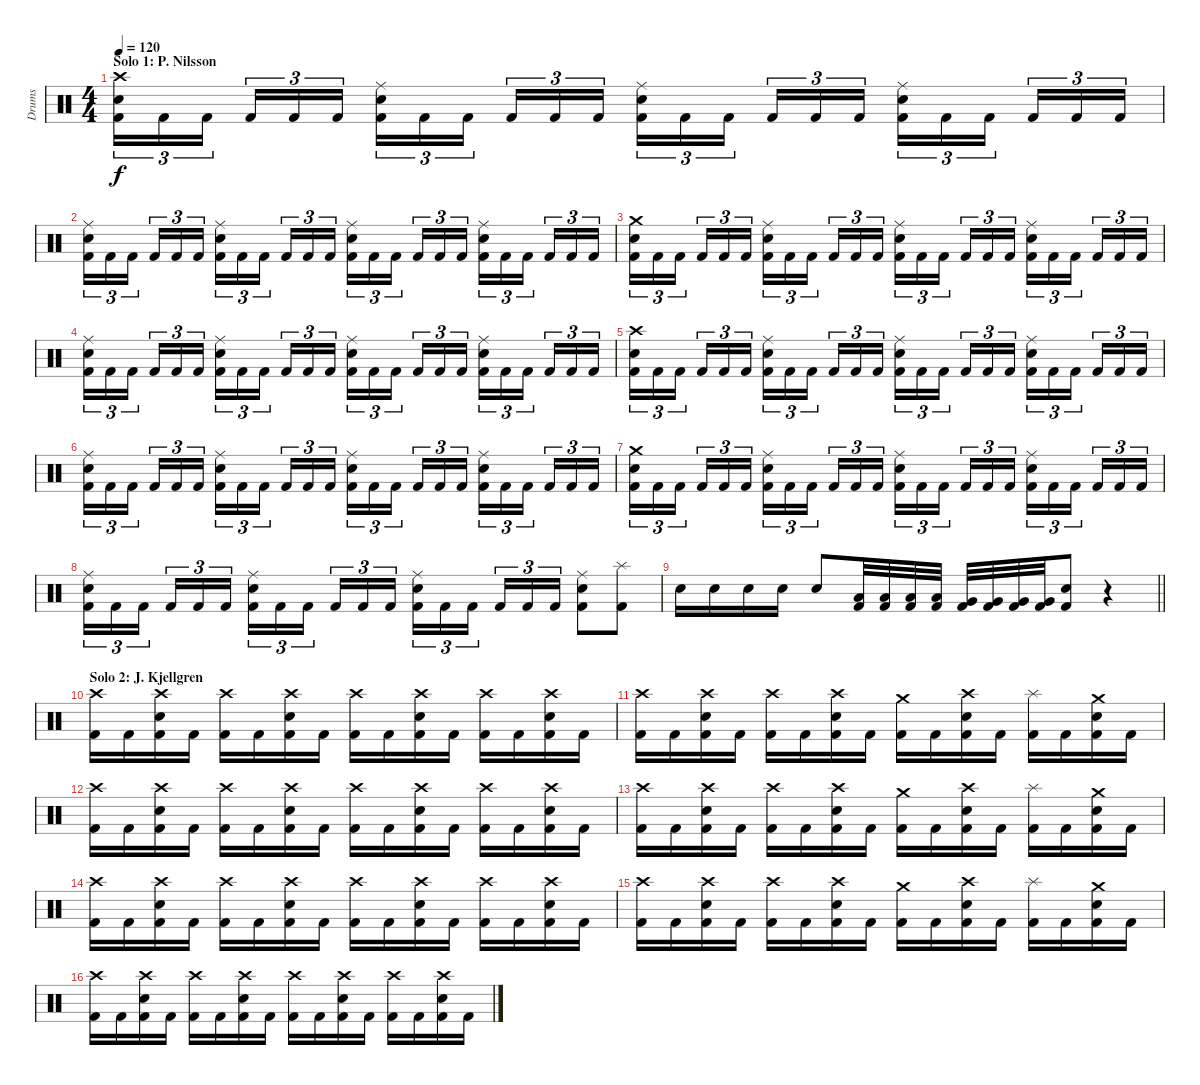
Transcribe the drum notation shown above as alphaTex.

\track ("Drums" "Drums") {instrument percussion}
\staff {score}
\articulation defaults
\ts (4 4)
\section ("" "Solo 1: P. Nilsson")
\tempo 120
\clef neutral
\ks c
("Crash high (hit)" "Electric Snare (hit)" "Kick (hit) 2").16{tu (3 2) dy f} "Kick (hit) 2".16{tu (3 2)} "Kick (hit) 2".16{tu (3 2)} "Kick (hit) 2".16{tu (3 2)} "Kick (hit) 2".16{tu (3 2)} "Kick (hit) 2".16{tu (3 2)} ("Ride (middle)" "Electric Snare (hit)" "Kick (hit) 2").16{tu (3 2)} "Kick (hit) 2".16{tu (3 2)} "Kick (hit) 2".16{tu (3 2)} "Kick (hit) 2".16{tu (3 2)} "Kick (hit) 2".16{tu (3 2)} "Kick (hit) 2".16{tu (3 2)} ("Ride (middle)" "Electric Snare (hit)" "Kick (hit) 2").16{tu (3 2)} "Kick (hit) 2".16{tu (3 2)} "Kick (hit) 2".16{tu (3 2)} "Kick (hit) 2".16{tu (3 2)} "Kick (hit) 2".16{tu (3 2)} "Kick (hit) 2".16{tu (3 2)} ("Ride (middle)" "Electric Snare (hit)" "Kick (hit) 2").16{tu (3 2)} "Kick (hit) 2".16{tu (3 2)} "Kick (hit) 2".16{tu (3 2)} "Kick (hit) 2".16{tu (3 2)} "Kick (hit) 2".16{tu (3 2)} "Kick (hit) 2".16{tu (3 2)} |
("Ride (middle)" "Electric Snare (hit)" "Kick (hit) 2").16{tu (3 2)} "Kick (hit) 2".16{tu (3 2)} "Kick (hit) 2".16{tu (3 2)} "Kick (hit) 2".16{tu (3 2)} "Kick (hit) 2".16{tu (3 2)} "Kick (hit) 2".16{tu (3 2)} ("Ride (middle)" "Electric Snare (hit)" "Kick (hit) 2").16{tu (3 2)} "Kick (hit) 2".16{tu (3 2)} "Kick (hit) 2".16{tu (3 2)} "Kick (hit) 2".16{tu (3 2)} "Kick (hit) 2".16{tu (3 2)} "Kick (hit) 2".16{tu (3 2)} ("Ride (middle)" "Electric Snare (hit)" "Kick (hit) 2").16{tu (3 2)} "Kick (hit) 2".16{tu (3 2)} "Kick (hit) 2".16{tu (3 2)} "Kick (hit) 2".16{tu (3 2)} "Kick (hit) 2".16{tu (3 2)} "Kick (hit) 2".16{tu (3 2)} ("Ride (middle)" "Electric Snare (hit)" "Kick (hit) 2").16{tu (3 2)} "Kick (hit) 2".16{tu (3 2)} "Kick (hit) 2".16{tu (3 2)} "Kick (hit) 2".16{tu (3 2)} "Kick (hit) 2".16{tu (3 2)} "Kick (hit) 2".16{tu (3 2)} |
("Crash medium (hit)" "Electric Snare (hit)" "Kick (hit) 2").16{tu (3 2)} "Kick (hit) 2".16{tu (3 2)} "Kick (hit) 2".16{tu (3 2)} "Kick (hit) 2".16{tu (3 2)} "Kick (hit) 2".16{tu (3 2)} "Kick (hit) 2".16{tu (3 2)} ("Ride (middle)" "Electric Snare (hit)" "Kick (hit) 2").16{tu (3 2)} "Kick (hit) 2".16{tu (3 2)} "Kick (hit) 2".16{tu (3 2)} "Kick (hit) 2".16{tu (3 2)} "Kick (hit) 2".16{tu (3 2)} "Kick (hit) 2".16{tu (3 2)} ("Ride (middle)" "Electric Snare (hit)" "Kick (hit) 2").16{tu (3 2)} "Kick (hit) 2".16{tu (3 2)} "Kick (hit) 2".16{tu (3 2)} "Kick (hit) 2".16{tu (3 2)} "Kick (hit) 2".16{tu (3 2)} "Kick (hit) 2".16{tu (3 2)} ("Ride (middle)" "Electric Snare (hit)" "Kick (hit) 2").16{tu (3 2)} "Kick (hit) 2".16{tu (3 2)} "Kick (hit) 2".16{tu (3 2)} "Kick (hit) 2".16{tu (3 2)} "Kick (hit) 2".16{tu (3 2)} "Kick (hit) 2".16{tu (3 2)} |
("Ride (middle)" "Electric Snare (hit)" "Kick (hit) 2").16{tu (3 2)} "Kick (hit) 2".16{tu (3 2)} "Kick (hit) 2".16{tu (3 2)} "Kick (hit) 2".16{tu (3 2)} "Kick (hit) 2".16{tu (3 2)} "Kick (hit) 2".16{tu (3 2)} ("Ride (middle)" "Electric Snare (hit)" "Kick (hit) 2").16{tu (3 2)} "Kick (hit) 2".16{tu (3 2)} "Kick (hit) 2".16{tu (3 2)} "Kick (hit) 2".16{tu (3 2)} "Kick (hit) 2".16{tu (3 2)} "Kick (hit) 2".16{tu (3 2)} ("Ride (middle)" "Electric Snare (hit)" "Kick (hit) 2").16{tu (3 2)} "Kick (hit) 2".16{tu (3 2)} "Kick (hit) 2".16{tu (3 2)} "Kick (hit) 2".16{tu (3 2)} "Kick (hit) 2".16{tu (3 2)} "Kick (hit) 2".16{tu (3 2)} ("Ride (middle)" "Electric Snare (hit)" "Kick (hit) 2").16{tu (3 2)} "Kick (hit) 2".16{tu (3 2)} "Kick (hit) 2".16{tu (3 2)} "Kick (hit) 2".16{tu (3 2)} "Kick (hit) 2".16{tu (3 2)} "Kick (hit) 2".16{tu (3 2)} |
("Crash high (hit)" "Electric Snare (hit)" "Kick (hit) 2").16{tu (3 2)} "Kick (hit) 2".16{tu (3 2)} "Kick (hit) 2".16{tu (3 2)} "Kick (hit) 2".16{tu (3 2)} "Kick (hit) 2".16{tu (3 2)} "Kick (hit) 2".16{tu (3 2)} ("Ride (middle)" "Electric Snare (hit)" "Kick (hit) 2").16{tu (3 2)} "Kick (hit) 2".16{tu (3 2)} "Kick (hit) 2".16{tu (3 2)} "Kick (hit) 2".16{tu (3 2)} "Kick (hit) 2".16{tu (3 2)} "Kick (hit) 2".16{tu (3 2)} ("Ride (middle)" "Electric Snare (hit)" "Kick (hit) 2").16{tu (3 2)} "Kick (hit) 2".16{tu (3 2)} "Kick (hit) 2".16{tu (3 2)} "Kick (hit) 2".16{tu (3 2)} "Kick (hit) 2".16{tu (3 2)} "Kick (hit) 2".16{tu (3 2)} ("Ride (middle)" "Electric Snare (hit)" "Kick (hit) 2").16{tu (3 2)} "Kick (hit) 2".16{tu (3 2)} "Kick (hit) 2".16{tu (3 2)} "Kick (hit) 2".16{tu (3 2)} "Kick (hit) 2".16{tu (3 2)} "Kick (hit) 2".16{tu (3 2)} |
("Ride (middle)" "Electric Snare (hit)" "Kick (hit) 2").16{tu (3 2)} "Kick (hit) 2".16{tu (3 2)} "Kick (hit) 2".16{tu (3 2)} "Kick (hit) 2".16{tu (3 2)} "Kick (hit) 2".16{tu (3 2)} "Kick (hit) 2".16{tu (3 2)} ("Ride (middle)" "Electric Snare (hit)" "Kick (hit) 2").16{tu (3 2)} "Kick (hit) 2".16{tu (3 2)} "Kick (hit) 2".16{tu (3 2)} "Kick (hit) 2".16{tu (3 2)} "Kick (hit) 2".16{tu (3 2)} "Kick (hit) 2".16{tu (3 2)} ("Ride (middle)" "Electric Snare (hit)" "Kick (hit) 2").16{tu (3 2)} "Kick (hit) 2".16{tu (3 2)} "Kick (hit) 2".16{tu (3 2)} "Kick (hit) 2".16{tu (3 2)} "Kick (hit) 2".16{tu (3 2)} "Kick (hit) 2".16{tu (3 2)} ("Ride (middle)" "Electric Snare (hit)" "Kick (hit) 2").16{tu (3 2)} "Kick (hit) 2".16{tu (3 2)} "Kick (hit) 2".16{tu (3 2)} "Kick (hit) 2".16{tu (3 2)} "Kick (hit) 2".16{tu (3 2)} "Kick (hit) 2".16{tu (3 2)} |
("Crash medium (hit)" "Electric Snare (hit)" "Kick (hit) 2").16{tu (3 2)} "Kick (hit) 2".16{tu (3 2)} "Kick (hit) 2".16{tu (3 2)} "Kick (hit) 2".16{tu (3 2)} "Kick (hit) 2".16{tu (3 2)} "Kick (hit) 2".16{tu (3 2)} ("Ride (middle)" "Electric Snare (hit)" "Kick (hit) 2").16{tu (3 2)} "Kick (hit) 2".16{tu (3 2)} "Kick (hit) 2".16{tu (3 2)} "Kick (hit) 2".16{tu (3 2)} "Kick (hit) 2".16{tu (3 2)} "Kick (hit) 2".16{tu (3 2)} ("Ride (middle)" "Electric Snare (hit)" "Kick (hit) 2").16{tu (3 2)} "Kick (hit) 2".16{tu (3 2)} "Kick (hit) 2".16{tu (3 2)} "Kick (hit) 2".16{tu (3 2)} "Kick (hit) 2".16{tu (3 2)} "Kick (hit) 2".16{tu (3 2)} ("Ride (middle)" "Electric Snare (hit)" "Kick (hit) 2").16{tu (3 2)} "Kick (hit) 2".16{tu (3 2)} "Kick (hit) 2".16{tu (3 2)} "Kick (hit) 2".16{tu (3 2)} "Kick (hit) 2".16{tu (3 2)} "Kick (hit) 2".16{tu (3 2)} |
("Ride (middle)" "Electric Snare (hit)" "Kick (hit) 2").16{tu (3 2)} "Kick (hit) 2".16{tu (3 2)} "Kick (hit) 2".16{tu (3 2)} "Kick (hit) 2".16{tu (3 2)} "Kick (hit) 2".16{tu (3 2)} "Kick (hit) 2".16{tu (3 2)} ("Ride (middle)" "Electric Snare (hit)" "Kick (hit) 2").16{tu (3 2)} "Kick (hit) 2".16{tu (3 2)} "Kick (hit) 2".16{tu (3 2)} "Kick (hit) 2".16{tu (3 2)} "Kick (hit) 2".16{tu (3 2)} "Kick (hit) 2".16{tu (3 2)} ("Ride (middle)" "Electric Snare (hit)" "Kick (hit) 2").16{tu (3 2)} "Kick (hit) 2".16{tu (3 2)} "Kick (hit) 2".16{tu (3 2)} "Kick (hit) 2".16{tu (3 2)} "Kick (hit) 2".16{tu (3 2)} "Kick (hit) 2".16{tu (3 2)} ("Ride (middle)" "Electric Snare (hit)" "Kick (hit) 2").8 ("Splash (hit)" "Kick (hit) 2").8 |
\barLineRight lightlight "Electric Snare (hit)".16 "Electric Snare (hit)".16 "Electric Snare (hit)".16 "Electric Snare (hit)".16 "Electric Snare (hit)".8
("Low Tom (hit)" "Kick (hit) 2").32 ("Low Tom (hit)" "Kick (hit) 2").32 ("Low Tom (hit)" "Kick (hit) 2").32 ("Low Tom (hit)" "Kick (hit) 2").32 ("Very Low Tom (hit)" "Kick (hit) 2").32 ("Very Low Tom (hit)" "Kick (hit) 2").32 ("Very Low Tom (hit)" "Kick (hit) 2").32 ("Very Low Tom (hit)" "Kick (hit) 2").32 ("Electric Snare (hit)" "Kick (hit) 2").8 r.4 |
\section ("" "Solo 2: J. Kjellgren")
("Crash high (hit)" "Kick (hit) 2").16 "Kick (hit) 2".16 ("Crash high (hit)" "Electric Snare (hit)" "Kick (hit) 2").16 "Kick (hit) 2".16 ("Crash high (hit)" "Kick (hit) 2").16 "Kick (hit) 2".16 ("Crash high (hit)" "Electric Snare (hit)" "Kick (hit) 2").16 "Kick (hit) 2".16 ("Crash high (hit)" "Kick (hit) 2").16 "Kick (hit) 2".16 ("Crash high (hit)" "Electric Snare (hit)" "Kick (hit) 2").16 "Kick (hit) 2".16 ("Crash high (hit)" "Kick (hit) 2").16 "Kick (hit) 2".16 ("Crash high (hit)" "Electric Snare (hit)" "Kick (hit) 2").16 "Kick (hit) 2".16 |
("Crash high (hit)" "Kick (hit) 2").16 "Kick (hit) 2".16 ("Crash high (hit)" "Electric Snare (hit)" "Kick (hit) 2").16 "Kick (hit) 2".16 ("Crash high (hit)" "Kick (hit) 2").16 "Kick (hit) 2".16 ("Crash high (hit)" "Electric Snare (hit)" "Kick (hit) 2").16 "Kick (hit) 2".16 ("Crash medium (hit)" "Kick (hit) 2").16 "Kick (hit) 2".16 ("Crash high (hit)" "Electric Snare (hit)" "Kick (hit) 2").16 "Kick (hit) 2".16 ("Splash (hit)" "Kick (hit) 2").16 "Kick (hit) 2".16 ("Crash medium (hit)" "Electric Snare (hit)" "Kick (hit) 2").16 "Kick (hit) 2".16 |
("Crash high (hit)" "Kick (hit) 2").16 "Kick (hit) 2".16 ("Crash high (hit)" "Electric Snare (hit)" "Kick (hit) 2").16 "Kick (hit) 2".16 ("Crash high (hit)" "Kick (hit) 2").16 "Kick (hit) 2".16 ("Crash high (hit)" "Electric Snare (hit)" "Kick (hit) 2").16 "Kick (hit) 2".16 ("Crash high (hit)" "Kick (hit) 2").16 "Kick (hit) 2".16 ("Crash high (hit)" "Electric Snare (hit)" "Kick (hit) 2").16 "Kick (hit) 2".16 ("Crash high (hit)" "Kick (hit) 2").16 "Kick (hit) 2".16 ("Crash high (hit)" "Electric Snare (hit)" "Kick (hit) 2").16 "Kick (hit) 2".16 |
("Crash high (hit)" "Kick (hit) 2").16 "Kick (hit) 2".16 ("Crash high (hit)" "Electric Snare (hit)" "Kick (hit) 2").16 "Kick (hit) 2".16 ("Crash high (hit)" "Kick (hit) 2").16 "Kick (hit) 2".16 ("Crash high (hit)" "Electric Snare (hit)" "Kick (hit) 2").16 "Kick (hit) 2".16 ("Crash medium (hit)" "Kick (hit) 2").16 "Kick (hit) 2".16 ("Crash high (hit)" "Electric Snare (hit)" "Kick (hit) 2").16 "Kick (hit) 2".16 ("Splash (hit)" "Kick (hit) 2").16 "Kick (hit) 2".16 ("Crash medium (hit)" "Electric Snare (hit)" "Kick (hit) 2").16 "Kick (hit) 2".16 |
("Crash high (hit)" "Kick (hit) 2").16 "Kick (hit) 2".16 ("Crash high (hit)" "Electric Snare (hit)" "Kick (hit) 2").16 "Kick (hit) 2".16 ("Crash high (hit)" "Kick (hit) 2").16 "Kick (hit) 2".16 ("Crash high (hit)" "Electric Snare (hit)" "Kick (hit) 2").16 "Kick (hit) 2".16 ("Crash high (hit)" "Kick (hit) 2").16 "Kick (hit) 2".16 ("Crash high (hit)" "Electric Snare (hit)" "Kick (hit) 2").16 "Kick (hit) 2".16 ("Crash high (hit)" "Kick (hit) 2").16 "Kick (hit) 2".16 ("Crash high (hit)" "Electric Snare (hit)" "Kick (hit) 2").16 "Kick (hit) 2".16 |
("Crash high (hit)" "Kick (hit) 2").16 "Kick (hit) 2".16 ("Crash high (hit)" "Electric Snare (hit)" "Kick (hit) 2").16 "Kick (hit) 2".16 ("Crash high (hit)" "Kick (hit) 2").16 "Kick (hit) 2".16 ("Crash high (hit)" "Electric Snare (hit)" "Kick (hit) 2").16 "Kick (hit) 2".16 ("Crash medium (hit)" "Kick (hit) 2").16 "Kick (hit) 2".16 ("Crash high (hit)" "Electric Snare (hit)" "Kick (hit) 2").16 "Kick (hit) 2".16 ("Splash (hit)" "Kick (hit) 2").16 "Kick (hit) 2".16 ("Crash medium (hit)" "Electric Snare (hit)" "Kick (hit) 2").16 "Kick (hit) 2".16 |
("Crash high (hit)" "Kick (hit) 2").16 "Kick (hit) 2".16 ("Crash high (hit)" "Electric Snare (hit)" "Kick (hit) 2").16 "Kick (hit) 2".16 ("Crash high (hit)" "Kick (hit) 2").16 "Kick (hit) 2".16 ("Crash high (hit)" "Electric Snare (hit)" "Kick (hit) 2").16 "Kick (hit) 2".16 ("Crash high (hit)" "Kick (hit) 2").16 "Kick (hit) 2".16 ("Crash high (hit)" "Electric Snare (hit)" "Kick (hit) 2").16 "Kick (hit) 2".16 ("Crash high (hit)" "Kick (hit) 2").16 "Kick (hit) 2".16 ("Crash high (hit)" "Electric Snare (hit)" "Kick (hit) 2").16 "Kick (hit) 2".16
